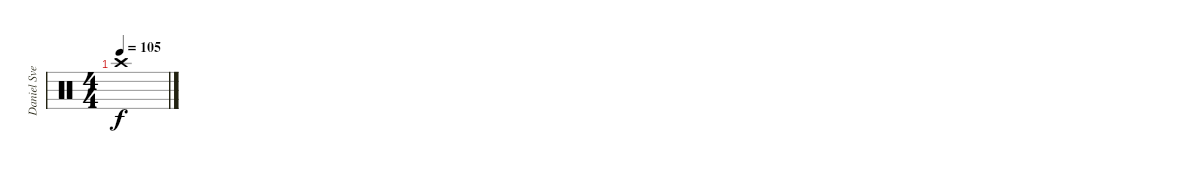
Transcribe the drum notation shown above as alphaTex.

\track ("Daniel Svensson" "Daniel Sve") {instrument percussion}
\staff {score}
\articulation defaults
\ts (4 4)
\tempo 105
\clef neutral
\ks c "Crash high (hit)".1{dy f}
